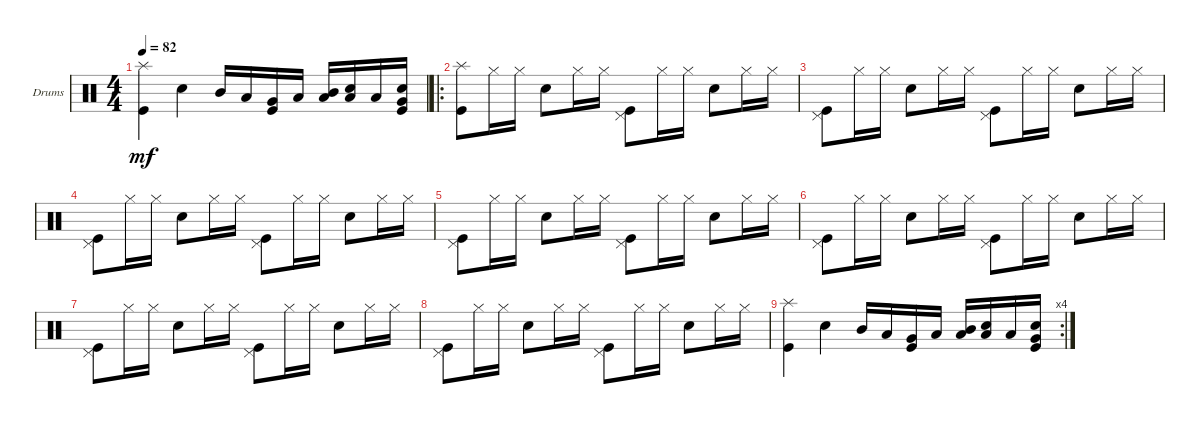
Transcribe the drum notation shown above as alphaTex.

\bracketExtendMode groupsimilarinstruments
\firstSystemTrackNameOrientation horizontal
\otherSystemsTrackNameOrientation horizontal
\track ("Drumkit" "Drums") {multiBarRest instrument percussion}
\staff {score}
\articulation defaults
\ts (4 4)
\tempo 82
\clef neutral
\ks c
("Splash (hit)" "Kick (hit)").4{dy mf} "Snare (hit) 2".4 "Mid Tom (hit)".16 "Low Tom (hit)".16 ("Very Low Tom (hit)" "Kick (hit)").16 "Low Tom (hit)".16 ("Low Tom (hit)" "Mid Tom (hit)").16 ("Low Tom (hit)" "Snare (hit) 2").16 "Low Tom (hit)".16 ("Very Low Tom (hit)" "Kick (hit)" "Snare (hit) 2").16 |
\ro
("Splash (hit)" "Kick (hit)").8 "Hi-Hat (closed)".16 "Hi-Hat (closed)".16 "Snare (hit) 2".8 "Hi-Hat (closed)".16 "Hi-Hat (closed)".16 ("Kick (hit)" "Pedal Hi-Hat (hit)").8 "Hi-Hat (closed)".16 "Hi-Hat (closed)".16 "Snare (hit) 2".8 "Hi-Hat (closed)".16 "Hi-Hat (closed)".16 |
("Kick (hit)" "Pedal Hi-Hat (hit)").8 "Hi-Hat (closed)".16 "Hi-Hat (closed)".16 "Snare (hit) 2".8 "Hi-Hat (closed)".16 "Hi-Hat (closed)".16 ("Kick (hit)" "Pedal Hi-Hat (hit)").8 "Hi-Hat (closed)".16 "Hi-Hat (closed)".16 "Snare (hit) 2".8 "Hi-Hat (closed)".16 "Hi-Hat (closed)".16 |
("Kick (hit)" "Pedal Hi-Hat (hit)").8 "Hi-Hat (closed)".16 "Hi-Hat (closed)".16 "Snare (hit) 2".8 "Hi-Hat (closed)".16 "Hi-Hat (closed)".16 ("Kick (hit)" "Pedal Hi-Hat (hit)").8 "Hi-Hat (closed)".16 "Hi-Hat (closed)".16 "Snare (hit) 2".8 "Hi-Hat (closed)".16 "Hi-Hat (closed)".16 |
("Kick (hit)" "Pedal Hi-Hat (hit)").8 "Hi-Hat (closed)".16 "Hi-Hat (closed)".16 "Snare (hit) 2".8 "Hi-Hat (closed)".16 "Hi-Hat (closed)".16 ("Kick (hit)" "Pedal Hi-Hat (hit)").8 "Hi-Hat (closed)".16 "Hi-Hat (closed)".16 "Snare (hit) 2".8 "Hi-Hat (closed)".16 "Hi-Hat (closed)".16 |
("Kick (hit)" "Pedal Hi-Hat (hit)").8 "Hi-Hat (closed)".16 "Hi-Hat (closed)".16 "Snare (hit) 2".8 "Hi-Hat (closed)".16 "Hi-Hat (closed)".16 ("Kick (hit)" "Pedal Hi-Hat (hit)").8 "Hi-Hat (closed)".16 "Hi-Hat (closed)".16 "Snare (hit) 2".8 "Hi-Hat (closed)".16 "Hi-Hat (closed)".16 |
("Kick (hit)" "Pedal Hi-Hat (hit)").8 "Hi-Hat (closed)".16 "Hi-Hat (closed)".16 "Snare (hit) 2".8 "Hi-Hat (closed)".16 "Hi-Hat (closed)".16 ("Kick (hit)" "Pedal Hi-Hat (hit)").8 "Hi-Hat (closed)".16 "Hi-Hat (closed)".16 "Snare (hit) 2".8 "Hi-Hat (closed)".16 "Hi-Hat (closed)".16 |
("Kick (hit)" "Pedal Hi-Hat (hit)").8 "Hi-Hat (closed)".16 "Hi-Hat (closed)".16 "Snare (hit) 2".8 "Hi-Hat (closed)".16 "Hi-Hat (closed)".16 ("Kick (hit)" "Pedal Hi-Hat (hit)").8 "Hi-Hat (closed)".16 "Hi-Hat (closed)".16 "Snare (hit) 2".8 "Hi-Hat (closed)".16 "Hi-Hat (closed)".16 |
\rc 4
("Splash (hit)" "Kick (hit)").4 "Snare (hit) 2".4 "Mid Tom (hit)".16 "Low Tom (hit)".16 ("Very Low Tom (hit)" "Kick (hit)").16 "Low Tom (hit)".16 ("Low Tom (hit)" "Mid Tom (hit)").16 ("Low Tom (hit)" "Snare (hit) 2").16 "Low Tom (hit)".16 ("Very Low Tom (hit)" "Kick (hit)" "Snare (hit) 2").16
